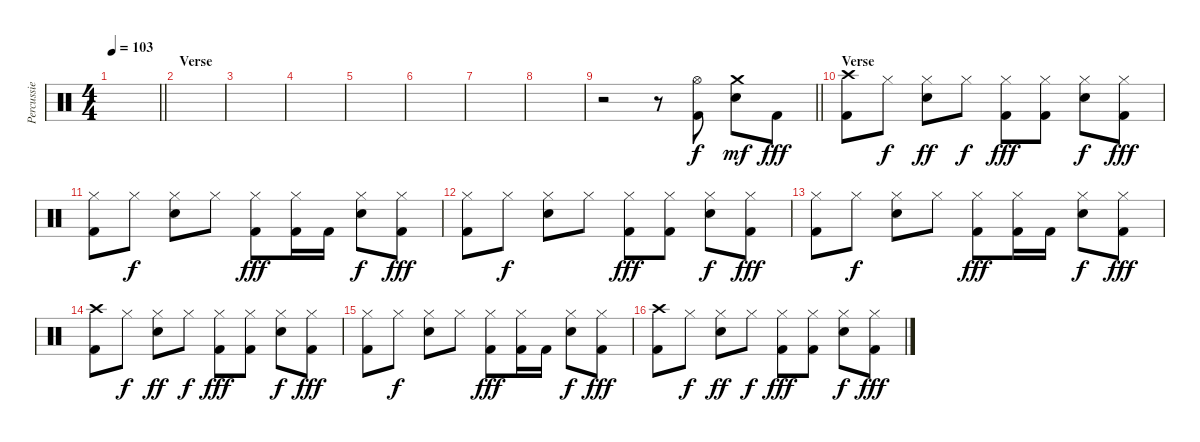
\track ("Percussie" "Percussie") {instrument percussion}
\staff {score}
\articulation defaults
\ts (4 4)
\tempo 103
\clef neutral
\barLineRight lightlight
\ks c
|
\section ("" "Verse")
|
|
|
|
|
|
|
\barLineRight lightlight
r.2 r.8 ("Hi-Hat (open)" "Kick (hit) 2").8 ("Crash medium (hit)" "Electric Snare (hit)").8{dy mf} "Kick (hit) 2".8{dy fff} |
\section ("" "Verse")
("Crash high (hit)" "Kick (hit) 2").8 "Hi-Hat (closed)".8{dy f} ("Hi-Hat (closed)" "Electric Snare (hit)").8{dy ff} "Hi-Hat (closed)".8{dy f} ("Hi-Hat (closed)" "Kick (hit) 2").8{dy fff} ("Hi-Hat (closed)" "Kick (hit) 2").8 ("Hi-Hat (closed)" "Electric Snare (hit)").8{dy f} ("Hi-Hat (closed)" "Kick (hit) 2").8{dy fff} |
("Hi-Hat (closed)" "Kick (hit) 2").8 "Hi-Hat (closed)".8{dy f} ("Hi-Hat (closed)" "Electric Snare (hit)").8 "Hi-Hat (closed)".8 ("Hi-Hat (closed)" "Kick (hit) 2").8{dy fff} ("Hi-Hat (closed)" "Kick (hit) 2").16 "Kick (hit) 2".16 ("Hi-Hat (closed)" "Electric Snare (hit)").8{dy f} ("Hi-Hat (closed)" "Kick (hit) 2").8{dy fff} |
("Hi-Hat (closed)" "Kick (hit) 2").8 "Hi-Hat (closed)".8{dy f} ("Hi-Hat (closed)" "Electric Snare (hit)").8 "Hi-Hat (closed)".8 ("Hi-Hat (closed)" "Kick (hit) 2").8{dy fff} ("Hi-Hat (closed)" "Kick (hit) 2").8 ("Hi-Hat (closed)" "Electric Snare (hit)").8{dy f} ("Hi-Hat (closed)" "Kick (hit) 2").8{dy fff} |
("Hi-Hat (closed)" "Kick (hit) 2").8 "Hi-Hat (closed)".8{dy f} ("Hi-Hat (closed)" "Electric Snare (hit)").8 "Hi-Hat (closed)".8 ("Hi-Hat (closed)" "Kick (hit) 2").8{dy fff} ("Hi-Hat (closed)" "Kick (hit) 2").16 "Kick (hit) 2".16 ("Hi-Hat (closed)" "Electric Snare (hit)").8{dy f} ("Hi-Hat (closed)" "Kick (hit) 2").8{dy fff} |
("Crash high (hit)" "Kick (hit) 2").8 "Hi-Hat (closed)".8{dy f} ("Hi-Hat (closed)" "Electric Snare (hit)").8{dy ff} "Hi-Hat (closed)".8{dy f} ("Hi-Hat (closed)" "Kick (hit) 2").8{dy fff} ("Hi-Hat (closed)" "Kick (hit) 2").8 ("Hi-Hat (closed)" "Electric Snare (hit)").8{dy f} ("Hi-Hat (closed)" "Kick (hit) 2").8{dy fff} |
("Hi-Hat (closed)" "Kick (hit) 2").8 "Hi-Hat (closed)".8{dy f} ("Hi-Hat (closed)" "Electric Snare (hit)").8 "Hi-Hat (closed)".8 ("Hi-Hat (closed)" "Kick (hit) 2").8{dy fff} ("Hi-Hat (closed)" "Kick (hit) 2").16 "Kick (hit) 2".16 ("Hi-Hat (closed)" "Electric Snare (hit)").8{dy f} ("Hi-Hat (closed)" "Kick (hit) 2").8{dy fff} |
("Crash high (hit)" "Kick (hit) 2").8 "Hi-Hat (closed)".8{dy f} ("Hi-Hat (closed)" "Electric Snare (hit)").8{dy ff} "Hi-Hat (closed)".8{dy f} ("Hi-Hat (closed)" "Kick (hit) 2").8{dy fff} ("Hi-Hat (closed)" "Kick (hit) 2").8 ("Hi-Hat (closed)" "Electric Snare (hit)").8{dy f} ("Hi-Hat (closed)" "Kick (hit) 2").8{dy fff}
